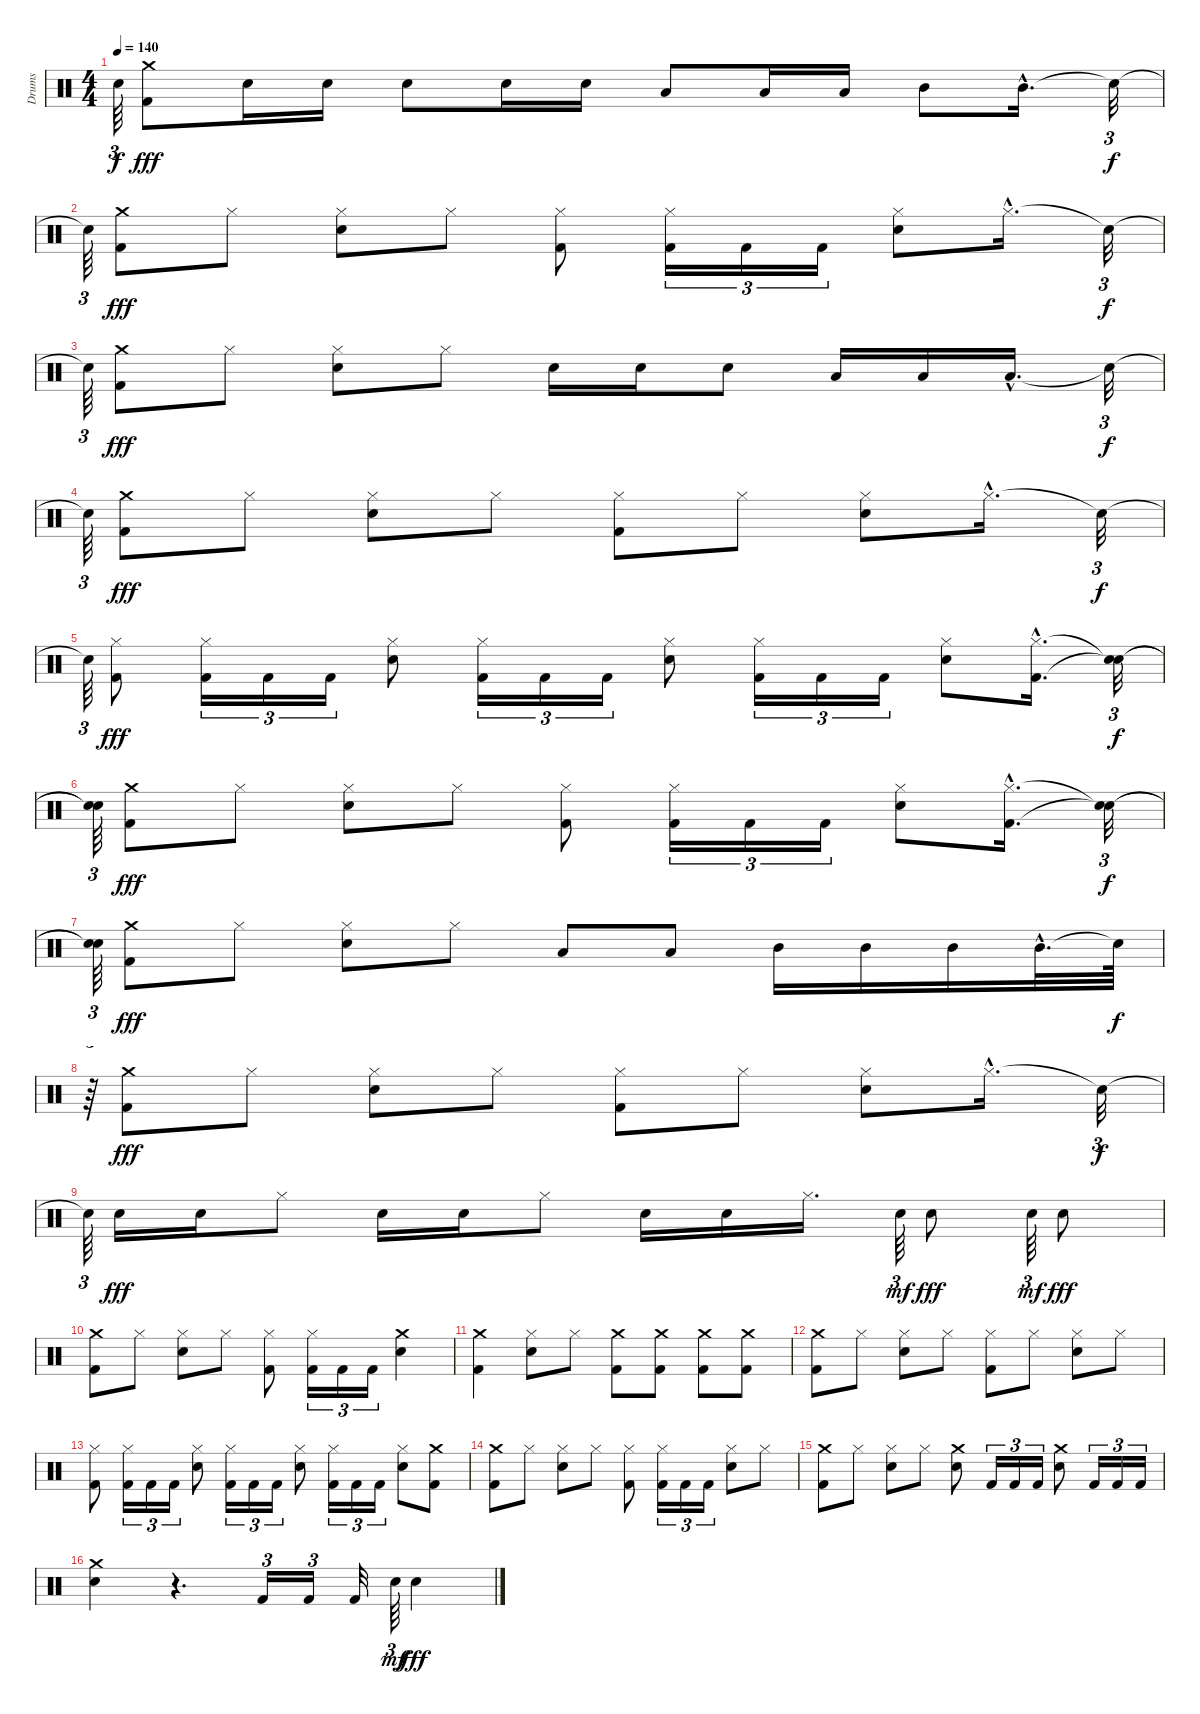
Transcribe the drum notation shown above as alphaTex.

\track ("Drums" "Drums") {instrument percussion}
\staff {score}
\articulation defaults
\ts (4 4)
\tempo 140
\clef neutral
\ks c "Snare (hit)"{t}.64{tu (3 2) dy f}
("Crash medium (hit)" "Kick (hit) 2").8{dy fff} "Snare (hit) 2".16 "Snare (hit) 2".16 "Snare (hit) 2".8 "Snare (hit) 2".16 "Snare (hit) 2".16 "Low Tom (hit)".8 "Low Tom (hit)".16 "Low Tom (hit)".16 "Mid Tom (hit)".8 "Mid Tom (hit)"{hac}.16{d} "Snare (hit)"{t}.32{tu (3 2) dy f} |
"Snare (hit)"{t}.64{tu (3 2)} ("Crash medium (hit)" "Kick (hit) 2").8{dy fff} "Hi-Hat (closed)".8 ("Snare (hit) 2" "Hi-Hat (closed)").8 "Hi-Hat (closed)".8 ("Kick (hit) 2" "Hi-Hat (closed)").8 ("Kick (hit) 2" "Hi-Hat (closed)").16{tu (3 2)} "Kick (hit) 2".16{tu (3 2)} "Kick (hit) 2".16{tu (3 2)} ("Snare (hit) 2" "Hi-Hat (closed)").8 "Hi-Hat (closed)"{hac}.16{d} "Snare (hit)"{t}.32{tu (3 2) dy f} |
"Snare (hit)"{t}.64{tu (3 2)} ("Kick (hit) 2" "Crash medium (hit)").8{dy fff} "Hi-Hat (closed)".8 ("Snare (hit) 2" "Hi-Hat (closed)").8 "Hi-Hat (closed)".8 "Snare (hit) 2".16 "Snare (hit) 2".16 "Snare (hit) 2".8 "Low Tom (hit)".16 "Low Tom (hit)".16 "Low Tom (hit)"{hac}.16{d} "Snare (hit)"{t}.32{tu (3 2) dy f} |
"Snare (hit)"{t}.64{tu (3 2)} ("Crash medium (hit)" "Kick (hit) 2").8{dy fff} "Hi-Hat (closed)".8 ("Snare (hit) 2" "Hi-Hat (closed)").8 "Hi-Hat (closed)".8 ("Hi-Hat (closed)" "Kick (hit) 2").8 "Hi-Hat (closed)".8 ("Snare (hit) 2" "Hi-Hat (closed)").8 "Hi-Hat (closed)"{hac}.16{d} "Snare (hit)"{t}.32{tu (3 2) dy f} |
"Snare (hit)"{t}.64{tu (3 2)} ("Kick (hit) 2" "Hi-Hat (closed)").8{dy fff} ("Kick (hit) 2" "Hi-Hat (closed)").16{tu (3 2)} "Kick (hit) 2".16{tu (3 2)} "Kick (hit) 2".16{tu (3 2)} ("Snare (hit) 2" "Hi-Hat (closed)").8 ("Kick (hit) 2" "Hi-Hat (closed)").16{tu (3 2)} "Kick (hit) 2".16{tu (3 2)} "Kick (hit) 2".16{tu (3 2)} ("Snare (hit) 2" "Hi-Hat (closed)").8 ("Kick (hit) 2" "Hi-Hat (closed)").16{tu (3 2)} "Kick (hit) 2".16{tu (3 2)} "Kick (hit) 2".16{tu (3 2)} ("Snare (hit) 2" "Hi-Hat (closed)").8 ("Kick (hit) 2"{hac} "Hi-Hat (closed)"{hac}).16{d} ("Snare (hit)"{t} "Snare (hit)"{t}).32{tu (3 2) dy f} |
("Snare (hit)"{t} "Snare (hit)"{t}).64{tu (3 2)} ("Crash medium (hit)" "Kick (hit) 2").8{dy fff} "Hi-Hat (closed)".8 ("Snare (hit) 2" "Hi-Hat (closed)").8 "Hi-Hat (closed)".8 ("Hi-Hat (closed)" "Kick (hit) 2").8 ("Hi-Hat (closed)" "Kick (hit) 2").16{tu (3 2)} "Kick (hit) 2".16{tu (3 2)} "Kick (hit) 2".16{tu (3 2)} ("Snare (hit) 2" "Hi-Hat (closed)").8 ("Hi-Hat (closed)"{hac} "Kick (hit) 2"{hac}).16{d} ("Snare (hit)"{t} "Snare (hit)"{t}).32{tu (3 2) dy f} |
("Snare (hit)"{t} "Snare (hit)"{t}).64{tu (3 2)} ("Kick (hit) 2" "Crash medium (hit)").8{dy fff} "Hi-Hat (closed)".8 ("Snare (hit) 2" "Hi-Hat (closed)").8 "Hi-Hat (closed)".8 "Low Tom (hit)".8 "Low Tom (hit)".8 "Mid Tom (hit)".16 "Mid Tom (hit)".16 "Mid Tom (hit)".16 "Mid Tom (hit)"{hac}.32{d} "Snare (hit)"{t}.64{dy f} |
r.64{tu (3 2)} ("Crash medium (hit)" "Kick (hit) 2").8{dy fff} "Hi-Hat (closed)".8 ("Snare (hit) 2" "Hi-Hat (closed)").8 "Hi-Hat (closed)".8 ("Hi-Hat (closed)" "Kick (hit) 2").8 "Hi-Hat (closed)".8 ("Snare (hit) 2" "Hi-Hat (closed)").8 "Hi-Hat (closed)"{hac}.16{d} "Snare (hit)"{t}.32{tu (3 2) dy f} |
"Snare (hit)"{t}.64{tu (3 2)} "Snare (hit) 2".16{dy fff} "Snare (hit) 2".16 "Hi-Hat (closed)".8 "Snare (hit) 2".16 "Snare (hit) 2".16 "Hi-Hat (closed)".8 "Snare (hit) 2".16 "Snare (hit) 2".16 "Hi-Hat (closed)".16{d} "Snare (hit) 2".64{tu (3 2) dy mf} "Snare (hit) 2".8{dy fff} "Snare (hit) 2".64{tu (3 2) dy mf} "Snare (hit) 2".8{dy fff} |
("Crash medium (hit)" "Kick (hit) 2").8 "Hi-Hat (closed)".8 ("Snare (hit) 2" "Hi-Hat (closed)").8 "Hi-Hat (closed)".8 ("Hi-Hat (closed)" "Kick (hit) 2").8 ("Hi-Hat (closed)" "Kick (hit) 2").16{tu (3 2)} "Kick (hit) 2".16{tu (3 2)} "Kick (hit) 2".16{tu (3 2)} ("Snare (hit) 2" "Crash medium (hit)").4 |
("Kick (hit) 2" "Crash medium (hit)").4 ("Snare (hit) 2" "Hi-Hat (closed)").8 "Hi-Hat (closed)".8 ("Kick (hit) 2" "Crash medium (hit)").8 ("Kick (hit) 2" "Crash medium (hit)").8 ("Kick (hit) 2" "Crash medium (hit)").8 ("Kick (hit) 2" "Crash medium (hit)").8 |
("Crash medium (hit)" "Kick (hit) 2").8 "Hi-Hat (closed)".8 ("Snare (hit) 2" "Hi-Hat (closed)").8 "Hi-Hat (closed)".8 ("Hi-Hat (closed)" "Kick (hit) 2").8 "Hi-Hat (closed)".8 ("Snare (hit) 2" "Hi-Hat (closed)").8 "Hi-Hat (closed)".8 |
("Kick (hit) 2" "Hi-Hat (closed)").8 ("Kick (hit) 2" "Hi-Hat (closed)").16{tu (3 2)} "Kick (hit) 2".16{tu (3 2)} "Kick (hit) 2".16{tu (3 2)} ("Snare (hit) 2" "Hi-Hat (closed)").8 ("Kick (hit) 2" "Hi-Hat (closed)").16{tu (3 2)} "Kick (hit) 2".16{tu (3 2)} "Kick (hit) 2".16{tu (3 2)} ("Snare (hit) 2" "Hi-Hat (closed)").8 ("Kick (hit) 2" "Hi-Hat (closed)").16{tu (3 2)} "Kick (hit) 2".16{tu (3 2)} "Kick (hit) 2".16{tu (3 2)} ("Snare (hit) 2" "Hi-Hat (closed)").8 ("Crash medium (hit)" "Kick (hit) 2").8 |
("Kick (hit) 2" "Crash medium (hit)").8 "Hi-Hat (closed)".8 ("Snare (hit) 2" "Hi-Hat (closed)").8 "Hi-Hat (closed)".8 ("Kick (hit) 2" "Hi-Hat (closed)").8 ("Kick (hit) 2" "Hi-Hat (closed)").16{tu (3 2)} "Kick (hit) 2".16{tu (3 2)} "Kick (hit) 2".16{tu (3 2)} ("Snare (hit) 2" "Hi-Hat (closed)").8 "Hi-Hat (closed)".8 |
("Crash medium (hit)" "Kick (hit) 2").8 "Hi-Hat (closed)".8 ("Snare (hit) 2" "Hi-Hat (closed)").8 "Hi-Hat (closed)".8 ("Snare (hit) 2" "Crash medium (hit)").8 "Kick (hit) 2".16{tu (3 2)} "Kick (hit) 2".16{tu (3 2)} "Kick (hit) 2".16{tu (3 2)} ("Snare (hit) 2" "Crash medium (hit)").8 "Kick (hit) 2".16{tu (3 2)} "Kick (hit) 2".16{tu (3 2)} "Kick (hit) 2".16{tu (3 2)} |
("Snare (hit) 2" "Crash medium (hit)").4 r.4{d} "Kick (hit) 2".16{tu (3 2)} "Kick (hit) 2".16{tu (3 2)} "Kick (hit) 2".32 "Snare (hit) 2".64{tu (3 2) dy mf} "Snare (hit) 2".4{dy fff}
